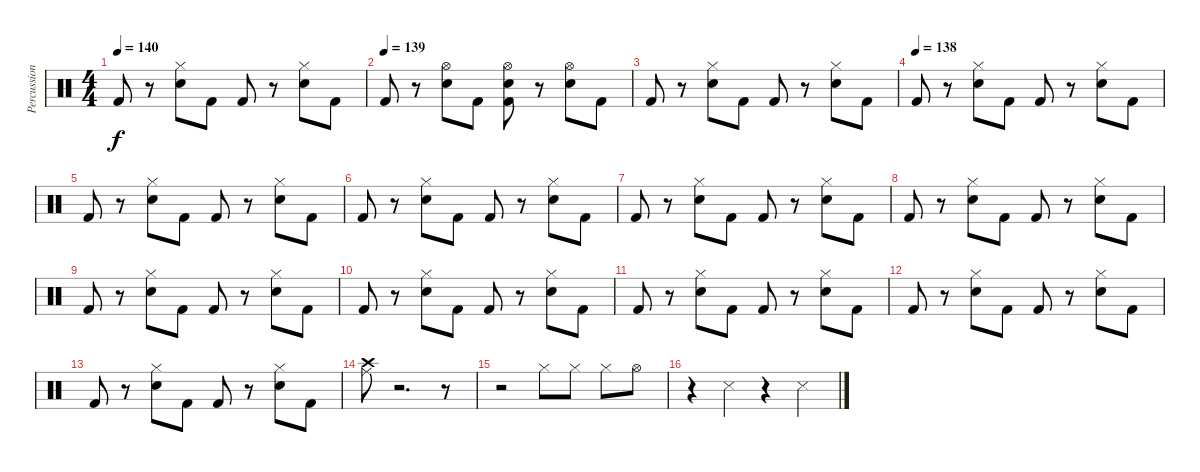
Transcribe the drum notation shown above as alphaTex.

\track ("Percussion" "Percussion") {instrument percussion}
\staff {score}
\articulation defaults
\ts (4 4)
\tempo 140
\clef neutral
\ks c "Kick (hit) 2".8{dy f}
r.8 ("Hi-Hat (closed)" "Snare (hit) 2").8 "Kick (hit) 2".8 "Kick (hit) 2".8 r.8 ("Hi-Hat (closed)" "Snare (hit) 2").8 "Kick (hit) 2".8 |
\tempo (139)
"Kick (hit) 2".8 r.8 ("Hi-Hat (open)" "Snare (hit) 2").8 "Kick (hit) 2".8 ("Hi-Hat (open)" "Snare (hit) 2" "Kick (hit) 2").8 r.8 ("Hi-Hat (open)" "Snare (hit) 2").8 "Kick (hit) 2".8 |
"Kick (hit) 2".8 r.8 ("Hi-Hat (closed)" "Snare (hit) 2").8 "Kick (hit) 2".8 "Kick (hit) 2".8 r.8 ("Hi-Hat (closed)" "Snare (hit) 2").8 "Kick (hit) 2".8 |
\tempo (138)
"Kick (hit) 2".8 r.8 ("Hi-Hat (closed)" "Snare (hit) 2").8 "Kick (hit) 2".8 "Kick (hit) 2".8 r.8 ("Hi-Hat (closed)" "Snare (hit) 2").8 "Kick (hit) 2".8 |
"Kick (hit) 2".8 r.8 ("Hi-Hat (closed)" "Snare (hit) 2").8 "Kick (hit) 2".8 "Kick (hit) 2".8 r.8 ("Hi-Hat (closed)" "Snare (hit) 2").8 "Kick (hit) 2".8 |
"Kick (hit) 2".8 r.8 ("Hi-Hat (closed)" "Snare (hit) 2").8 "Kick (hit) 2".8 "Kick (hit) 2".8 r.8 ("Hi-Hat (closed)" "Snare (hit) 2").8 "Kick (hit) 2".8 |
"Kick (hit) 2".8 r.8 ("Hi-Hat (closed)" "Snare (hit) 2").8 "Kick (hit) 2".8 "Kick (hit) 2".8 r.8 ("Hi-Hat (closed)" "Snare (hit) 2").8 "Kick (hit) 2".8 |
"Kick (hit) 2".8 r.8 ("Hi-Hat (closed)" "Snare (hit) 2").8 "Kick (hit) 2".8 "Kick (hit) 2".8 r.8 ("Hi-Hat (closed)" "Snare (hit) 2").8 "Kick (hit) 2".8 |
"Kick (hit) 2".8 r.8 ("Hi-Hat (closed)" "Snare (hit) 2").8 "Kick (hit) 2".8 "Kick (hit) 2".8 r.8 ("Hi-Hat (closed)" "Snare (hit) 2").8 "Kick (hit) 2".8 |
"Kick (hit) 2".8 r.8 ("Hi-Hat (closed)" "Snare (hit) 2").8 "Kick (hit) 2".8 "Kick (hit) 2".8 r.8 ("Hi-Hat (closed)" "Snare (hit) 2").8 "Kick (hit) 2".8 |
"Kick (hit) 2".8 r.8 ("Hi-Hat (closed)" "Snare (hit) 2").8 "Kick (hit) 2".8 "Kick (hit) 2".8 r.8 ("Hi-Hat (closed)" "Snare (hit) 2").8 "Kick (hit) 2".8 |
"Kick (hit) 2".8 r.8 ("Hi-Hat (closed)" "Snare (hit) 2").8 "Kick (hit) 2".8 "Kick (hit) 2".8 r.8 ("Hi-Hat (closed)" "Snare (hit) 2").8 "Kick (hit) 2".8 |
"Kick (hit) 2".8 r.8 ("Hi-Hat (closed)" "Snare (hit) 2").8 "Kick (hit) 2".8 "Kick (hit) 2".8 r.8 ("Hi-Hat (closed)" "Snare (hit) 2").8 "Kick (hit) 2".8 |
("Ride (middle)" "Crash high (hit)").8 r.2{d} r.8 |
r.2 "Hi-Hat (closed)".8 "Hi-Hat (closed)".8 "Hi-Hat (closed)".8 "Hi-Hat (open)".8 |
r.4 "Metronome (hit)".4 r.4 "Metronome (hit)".4
